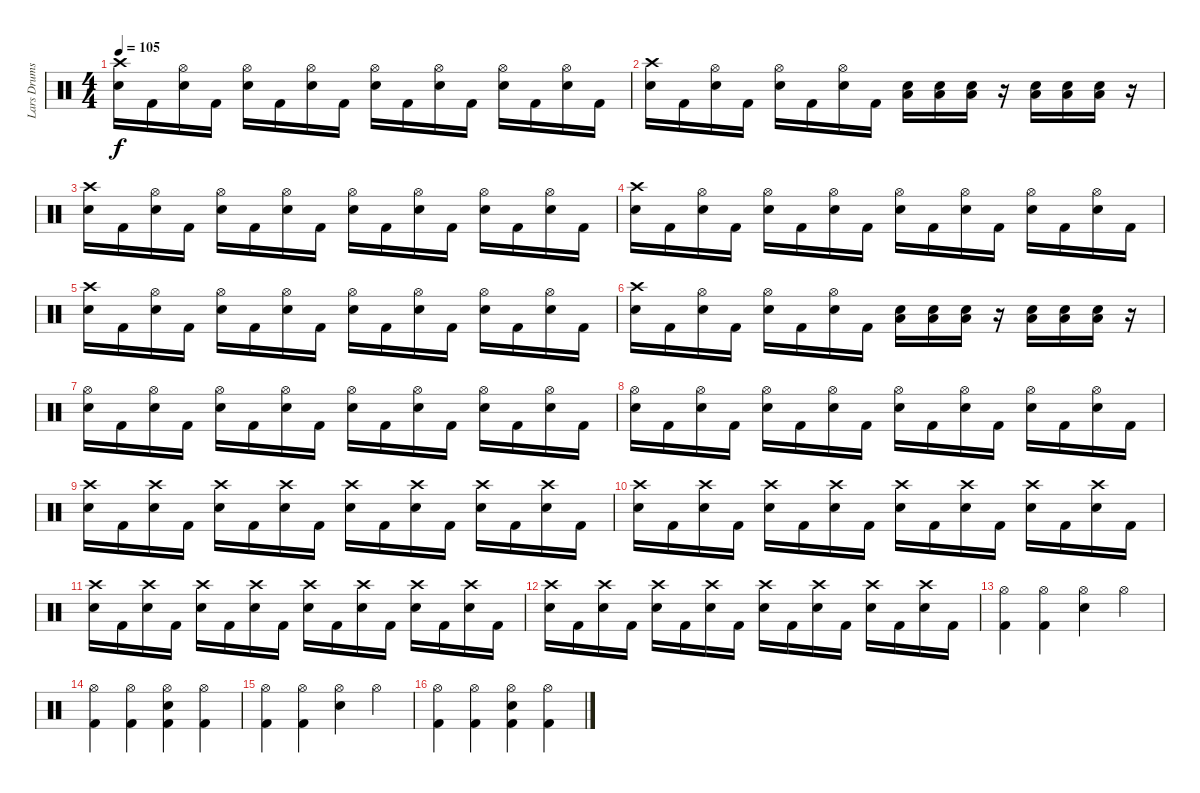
\track ("Lars Drums" "Lars Drums") {instrument percussion}
\staff {score}
\articulation defaults
\ts (4 4)
\tempo 105
\clef neutral
\ks c
("Crash high (hit)" "Snare (hit) 2").16{dy f} "Kick (hit) 2".16 ("Hi-Hat (open)" "Snare (hit) 2").16 "Kick (hit) 2".16 ("Hi-Hat (open)" "Snare (hit) 2").16 "Kick (hit) 2".16 ("Hi-Hat (open)" "Snare (hit) 2").16 "Kick (hit) 2".16 ("Hi-Hat (open)" "Snare (hit) 2").16 "Kick (hit) 2".16 ("Hi-Hat (open)" "Snare (hit) 2").16 "Kick (hit) 2".16 ("Hi-Hat (open)" "Snare (hit) 2").16 "Kick (hit) 2".16 ("Hi-Hat (open)" "Snare (hit) 2").16 "Kick (hit) 2".16 |
("Crash high (hit)" "Snare (hit) 2").16 "Kick (hit) 2".16 ("Hi-Hat (open)" "Snare (hit) 2").16 "Kick (hit) 2".16 ("Hi-Hat (open)" "Snare (hit) 2").16 "Kick (hit) 2".16 ("Hi-Hat (open)" "Snare (hit) 2").16 "Kick (hit) 2".16 ("Snare (hit) 2" "Low Floor Tom (hit)").16 ("Snare (hit) 2" "Low Floor Tom (hit)").16 ("Snare (hit) 2" "Low Floor Tom (hit)").16 r.16 ("Snare (hit) 2" "Low Floor Tom (hit)").16 ("Snare (hit) 2" "Low Floor Tom (hit)").16 ("Snare (hit) 2" "Low Floor Tom (hit)").16 r.16 |
("Crash high (hit)" "Snare (hit) 2").16 "Kick (hit) 2".16 ("Hi-Hat (open)" "Snare (hit) 2").16 "Kick (hit) 2".16 ("Hi-Hat (open)" "Snare (hit) 2").16 "Kick (hit) 2".16 ("Hi-Hat (open)" "Snare (hit) 2").16 "Kick (hit) 2".16 ("Hi-Hat (open)" "Snare (hit) 2").16 "Kick (hit) 2".16 ("Hi-Hat (open)" "Snare (hit) 2").16 "Kick (hit) 2".16 ("Hi-Hat (open)" "Snare (hit) 2").16 "Kick (hit) 2".16 ("Hi-Hat (open)" "Snare (hit) 2").16 "Kick (hit) 2".16 |
("Crash high (hit)" "Snare (hit) 2").16 "Kick (hit) 2".16 ("Hi-Hat (open)" "Snare (hit) 2").16 "Kick (hit) 2".16 ("Hi-Hat (open)" "Snare (hit) 2").16 "Kick (hit) 2".16 ("Hi-Hat (open)" "Snare (hit) 2").16 "Kick (hit) 2".16 ("Hi-Hat (open)" "Snare (hit) 2").16 "Kick (hit) 2".16 ("Hi-Hat (open)" "Snare (hit) 2").16 "Kick (hit) 2".16 ("Hi-Hat (open)" "Snare (hit) 2").16 "Kick (hit) 2".16 ("Hi-Hat (open)" "Snare (hit) 2").16 "Kick (hit) 2".16 |
("Crash high (hit)" "Snare (hit) 2").16 "Kick (hit) 2".16 ("Hi-Hat (open)" "Snare (hit) 2").16 "Kick (hit) 2".16 ("Hi-Hat (open)" "Snare (hit) 2").16 "Kick (hit) 2".16 ("Hi-Hat (open)" "Snare (hit) 2").16 "Kick (hit) 2".16 ("Hi-Hat (open)" "Snare (hit) 2").16 "Kick (hit) 2".16 ("Hi-Hat (open)" "Snare (hit) 2").16 "Kick (hit) 2".16 ("Hi-Hat (open)" "Snare (hit) 2").16 "Kick (hit) 2".16 ("Hi-Hat (open)" "Snare (hit) 2").16 "Kick (hit) 2".16 |
("Crash high (hit)" "Snare (hit) 2").16 "Kick (hit) 2".16 ("Hi-Hat (open)" "Snare (hit) 2").16 "Kick (hit) 2".16 ("Hi-Hat (open)" "Snare (hit) 2").16 "Kick (hit) 2".16 ("Hi-Hat (open)" "Snare (hit) 2").16 "Kick (hit) 2".16 ("Snare (hit) 2" "Low Floor Tom (hit)").16 ("Snare (hit) 2" "Low Floor Tom (hit)").16 ("Snare (hit) 2" "Low Floor Tom (hit)").16 r.16 ("Snare (hit) 2" "Low Floor Tom (hit)").16 ("Snare (hit) 2" "Low Floor Tom (hit)").16 ("Snare (hit) 2" "Low Floor Tom (hit)").16 r.16 |
("Hi-Hat (open)" "Snare (hit) 2").16 "Kick (hit) 2".16 ("Hi-Hat (open)" "Snare (hit) 2").16 "Kick (hit) 2".16 ("Hi-Hat (open)" "Snare (hit) 2").16 "Kick (hit) 2".16 ("Hi-Hat (open)" "Snare (hit) 2").16 "Kick (hit) 2".16 ("Hi-Hat (open)" "Snare (hit) 2").16 "Kick (hit) 2".16 ("Hi-Hat (open)" "Snare (hit) 2").16 "Kick (hit) 2".16 ("Hi-Hat (open)" "Snare (hit) 2").16 "Kick (hit) 2".16 ("Hi-Hat (open)" "Snare (hit) 2").16 "Kick (hit) 2".16 |
("Hi-Hat (open)" "Snare (hit) 2").16 "Kick (hit) 2".16 ("Hi-Hat (open)" "Snare (hit) 2").16 "Kick (hit) 2".16 ("Hi-Hat (open)" "Snare (hit) 2").16 "Kick (hit) 2".16 ("Hi-Hat (open)" "Snare (hit) 2").16 "Kick (hit) 2".16 ("Hi-Hat (open)" "Snare (hit) 2").16 "Kick (hit) 2".16 ("Hi-Hat (open)" "Snare (hit) 2").16 "Kick (hit) 2".16 ("Hi-Hat (open)" "Snare (hit) 2").16 "Kick (hit) 2".16 ("Hi-Hat (open)" "Snare (hit) 2").16 "Kick (hit) 2".16 |
("Crash high (hit)" "Snare (hit) 2").16 "Kick (hit) 2".16 ("Crash high (hit)" "Snare (hit) 2").16 "Kick (hit) 2".16 ("Crash high (hit)" "Snare (hit) 2").16 "Kick (hit) 2".16 ("Crash high (hit)" "Snare (hit) 2").16 "Kick (hit) 2".16 ("Crash high (hit)" "Snare (hit) 2").16 "Kick (hit) 2".16 ("Crash high (hit)" "Snare (hit) 2").16 "Kick (hit) 2".16 ("Crash high (hit)" "Snare (hit) 2").16 "Kick (hit) 2".16 ("Crash high (hit)" "Snare (hit) 2").16 "Kick (hit) 2".16 |
("Crash high (hit)" "Snare (hit) 2").16 "Kick (hit) 2".16 ("Crash high (hit)" "Snare (hit) 2").16 "Kick (hit) 2".16 ("Crash high (hit)" "Snare (hit) 2").16 "Kick (hit) 2".16 ("Crash high (hit)" "Snare (hit) 2").16 "Kick (hit) 2".16 ("Crash high (hit)" "Snare (hit) 2").16 "Kick (hit) 2".16 ("Crash high (hit)" "Snare (hit) 2").16 "Kick (hit) 2".16 ("Crash high (hit)" "Snare (hit) 2").16 "Kick (hit) 2".16 ("Crash high (hit)" "Snare (hit) 2").16 "Kick (hit) 2".16 |
("Crash high (hit)" "Snare (hit) 2").16 "Kick (hit) 2".16 ("Crash high (hit)" "Snare (hit) 2").16 "Kick (hit) 2".16 ("Crash high (hit)" "Snare (hit) 2").16 "Kick (hit) 2".16 ("Crash high (hit)" "Snare (hit) 2").16 "Kick (hit) 2".16 ("Crash high (hit)" "Snare (hit) 2").16 "Kick (hit) 2".16 ("Crash high (hit)" "Snare (hit) 2").16 "Kick (hit) 2".16 ("Crash high (hit)" "Snare (hit) 2").16 "Kick (hit) 2".16 ("Crash high (hit)" "Snare (hit) 2").16 "Kick (hit) 2".16 |
("Crash high (hit)" "Snare (hit) 2").16 "Kick (hit) 2".16 ("Crash high (hit)" "Snare (hit) 2").16 "Kick (hit) 2".16 ("Crash high (hit)" "Snare (hit) 2").16 "Kick (hit) 2".16 ("Crash high (hit)" "Snare (hit) 2").16 "Kick (hit) 2".16 ("Crash high (hit)" "Snare (hit) 2").16 "Kick (hit) 2".16 ("Crash high (hit)" "Snare (hit) 2").16 "Kick (hit) 2".16 ("Crash high (hit)" "Snare (hit) 2").16 "Kick (hit) 2".16 ("Crash high (hit)" "Snare (hit) 2").16 "Kick (hit) 2".16 |
("Hi-Hat (open)" "Kick (hit) 2").4 ("Hi-Hat (open)" "Kick (hit) 2").4 ("Hi-Hat (open)" "Snare (hit) 2").4 "Hi-Hat (open)".4 |
("Hi-Hat (open)" "Kick (hit) 2").4 ("Hi-Hat (open)" "Kick (hit) 2").4 ("Hi-Hat (open)" "Kick (hit) 2" "Snare (hit) 2").4 ("Hi-Hat (open)" "Kick (hit) 2").4 |
("Hi-Hat (open)" "Kick (hit) 2").4 ("Hi-Hat (open)" "Kick (hit) 2").4 ("Hi-Hat (open)" "Snare (hit) 2").4 "Hi-Hat (open)".4 |
("Hi-Hat (open)" "Kick (hit) 2").4 ("Hi-Hat (open)" "Kick (hit) 2").4 ("Hi-Hat (open)" "Kick (hit) 2" "Snare (hit) 2").4 ("Hi-Hat (open)" "Kick (hit) 2").4
